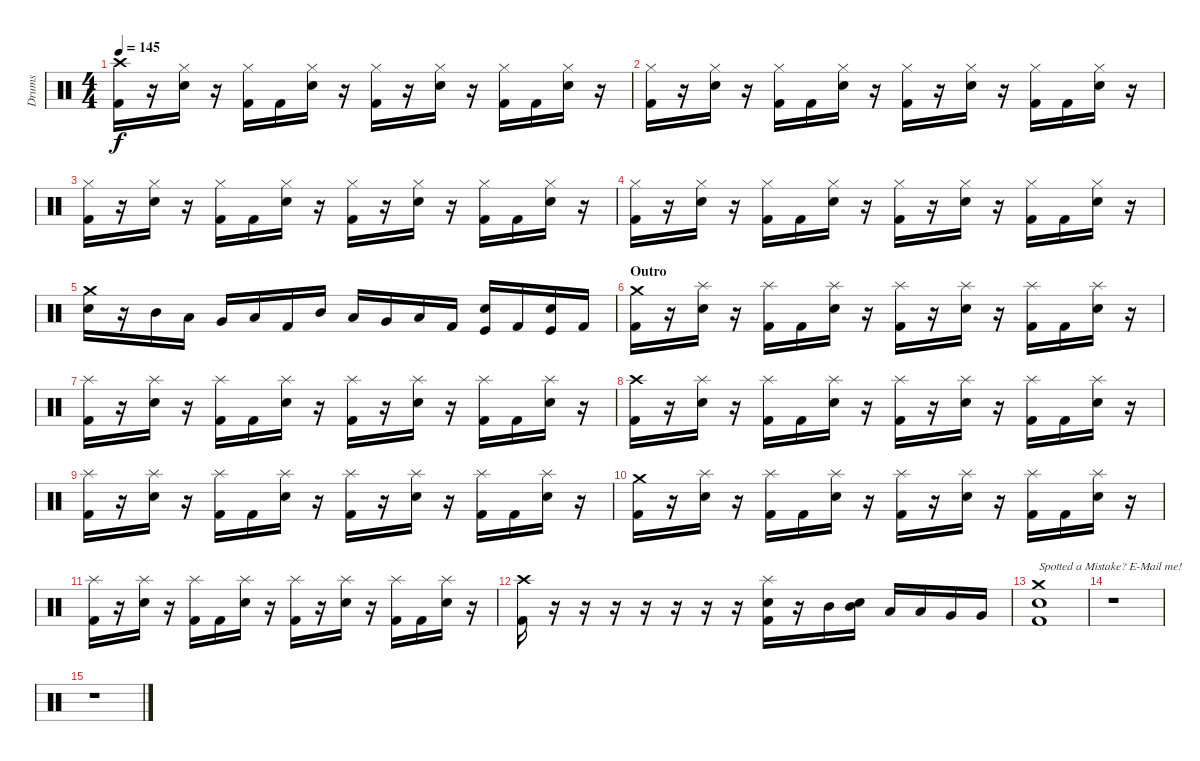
\track ("Drums" "Drums") {instrument percussion}
\staff {score}
\articulation defaults
\ts (4 4)
\tempo 145
\clef neutral
\ks c
("Crash high (hit)" "Kick (hit) 2").16{dy f} r.16 ("Hi-Hat (closed)" "Snare (hit) 2").16 r.16 ("Hi-Hat (closed)" "Kick (hit) 2").16 "Kick (hit) 2".16 ("Hi-Hat (closed)" "Snare (hit) 2").16 r.16 ("Hi-Hat (closed)" "Kick (hit) 2").16 r.16 ("Hi-Hat (closed)" "Snare (hit) 2").16 r.16 ("Hi-Hat (closed)" "Kick (hit) 2").16 "Kick (hit) 2".16 ("Hi-Hat (closed)" "Snare (hit) 2").16 r.16 |
("Hi-Hat (closed)" "Kick (hit) 2").16 r.16 ("Hi-Hat (closed)" "Snare (hit) 2").16 r.16 ("Hi-Hat (closed)" "Kick (hit) 2").16 "Kick (hit) 2".16 ("Hi-Hat (closed)" "Snare (hit) 2").16 r.16 ("Hi-Hat (closed)" "Kick (hit) 2").16 r.16 ("Hi-Hat (closed)" "Snare (hit) 2").16 r.16 ("Hi-Hat (closed)" "Kick (hit) 2").16 "Kick (hit) 2".16 ("Hi-Hat (closed)" "Snare (hit) 2").16 r.16 |
("Hi-Hat (closed)" "Kick (hit) 2").16 r.16 ("Hi-Hat (closed)" "Snare (hit) 2").16 r.16 ("Hi-Hat (closed)" "Kick (hit) 2").16 "Kick (hit) 2".16 ("Hi-Hat (closed)" "Snare (hit) 2").16 r.16 ("Hi-Hat (closed)" "Kick (hit) 2").16 r.16 ("Hi-Hat (closed)" "Snare (hit) 2").16 r.16 ("Hi-Hat (closed)" "Kick (hit) 2").16 "Kick (hit) 2".16 ("Hi-Hat (closed)" "Snare (hit) 2").16 r.16 |
("Hi-Hat (closed)" "Kick (hit) 2").16 r.16 ("Hi-Hat (closed)" "Snare (hit) 2").16 r.16 ("Hi-Hat (closed)" "Kick (hit) 2").16 "Kick (hit) 2".16 ("Hi-Hat (closed)" "Snare (hit) 2").16 r.16 ("Hi-Hat (closed)" "Kick (hit) 2").16 r.16 ("Hi-Hat (closed)" "Snare (hit) 2").16 r.16 ("Hi-Hat (closed)" "Kick (hit) 2").16 "Kick (hit) 2".16 ("Hi-Hat (closed)" "Snare (hit) 2").16 r.16 |
("Crash medium (hit)" "Snare (hit) 2").16 r.16 "Mid Tom (hit)".16 "Low Tom (hit)".16 "Very Low Tom (hit)".16 "Low Floor Tom (hit)".16 "Kick (hit) 2".16 "Mid Tom (hit)".16 "Low Tom (hit)".16 "Very Low Tom (hit)".16 "Low Floor Tom (hit)".16 "Kick (hit) 2".16 ("Snare (hit) 2" "Kick (hit)").16 "Kick (hit) 2".16 ("Snare (hit) 2" "Kick (hit)").16 "Kick (hit) 2".16 |
\section ("" "Outro")
("Crash medium (hit)" "Kick (hit) 2").16 r.16 ("Splash (hit)" "Snare (hit) 2").16 r.16 ("Splash (hit)" "Kick (hit) 2").16 "Kick (hit) 2".16 ("Splash (hit)" "Snare (hit) 2").16 r.16 ("Splash (hit)" "Kick (hit) 2").16 r.16 ("Splash (hit)" "Snare (hit) 2").16 r.16 ("Splash (hit)" "Kick (hit) 2").16 "Kick (hit) 2".16 ("Splash (hit)" "Snare (hit) 2").16 r.16 |
("Splash (hit)" "Kick (hit) 2").16 r.16 ("Splash (hit)" "Snare (hit) 2").16 r.16 ("Splash (hit)" "Kick (hit) 2").16 "Kick (hit) 2".16 ("Splash (hit)" "Snare (hit) 2").16 r.16 ("Splash (hit)" "Kick (hit) 2").16 r.16 ("Splash (hit)" "Snare (hit) 2").16 r.16 ("Splash (hit)" "Kick (hit) 2").16 "Kick (hit) 2".16 ("Splash (hit)" "Snare (hit) 2").16 r.16 |
("Crash high (hit)" "Kick (hit) 2").16 r.16 ("Splash (hit)" "Snare (hit) 2").16 r.16 ("Splash (hit)" "Kick (hit) 2").16 "Kick (hit) 2".16 ("Splash (hit)" "Snare (hit) 2").16 r.16 ("Splash (hit)" "Kick (hit) 2").16 r.16 ("Splash (hit)" "Snare (hit) 2").16 r.16 ("Splash (hit)" "Kick (hit) 2").16 "Kick (hit) 2".16 ("Splash (hit)" "Snare (hit) 2").16 r.16 |
("Splash (hit)" "Kick (hit) 2").16 r.16 ("Splash (hit)" "Snare (hit) 2").16 r.16 ("Splash (hit)" "Kick (hit) 2").16 "Kick (hit) 2".16 ("Splash (hit)" "Snare (hit) 2").16 r.16 ("Splash (hit)" "Kick (hit) 2").16 r.16 ("Splash (hit)" "Snare (hit) 2").16 r.16 ("Splash (hit)" "Kick (hit) 2").16 "Kick (hit) 2".16 ("Splash (hit)" "Snare (hit) 2").16 r.16 |
("Crash medium (hit)" "Kick (hit) 2").16 r.16 ("Splash (hit)" "Snare (hit) 2").16 r.16 ("Splash (hit)" "Kick (hit) 2").16 "Kick (hit) 2".16 ("Splash (hit)" "Snare (hit) 2").16 r.16 ("Splash (hit)" "Kick (hit) 2").16 r.16 ("Splash (hit)" "Snare (hit) 2").16 r.16 ("Splash (hit)" "Kick (hit) 2").16 "Kick (hit) 2".16 ("Splash (hit)" "Snare (hit) 2").16 r.16 |
("Splash (hit)" "Kick (hit) 2").16 r.16 ("Splash (hit)" "Snare (hit) 2").16 r.16 ("Splash (hit)" "Kick (hit) 2").16 "Kick (hit) 2".16 ("Splash (hit)" "Snare (hit) 2").16 r.16 ("Splash (hit)" "Kick (hit) 2").16 r.16 ("Splash (hit)" "Snare (hit) 2").16 r.16 ("Splash (hit)" "Kick (hit) 2").16 "Kick (hit) 2".16 ("Splash (hit)" "Snare (hit) 2").16 r.16 |
("Crash high (hit)" "Kick (hit) 2").16 r.16 r.16 r.16 r.16 r.16 r.16 r.16 ("Splash (hit)" "Snare (hit) 2" "Kick (hit) 2").16 r.16 "Mid Tom (hit)".16 ("Mid Tom (hit)" "Snare (hit) 2").16 "Low Tom (hit)".16 "Low Tom (hit)".16 "Very Low Tom (hit)".16 "Very Low Tom (hit)".16 |
("Crash medium (hit)" "Snare (hit) 2" "Kick (hit) 2").1{txt "Spotted a Mistake? E-Mail me!"} |
r.1 |
r.1
